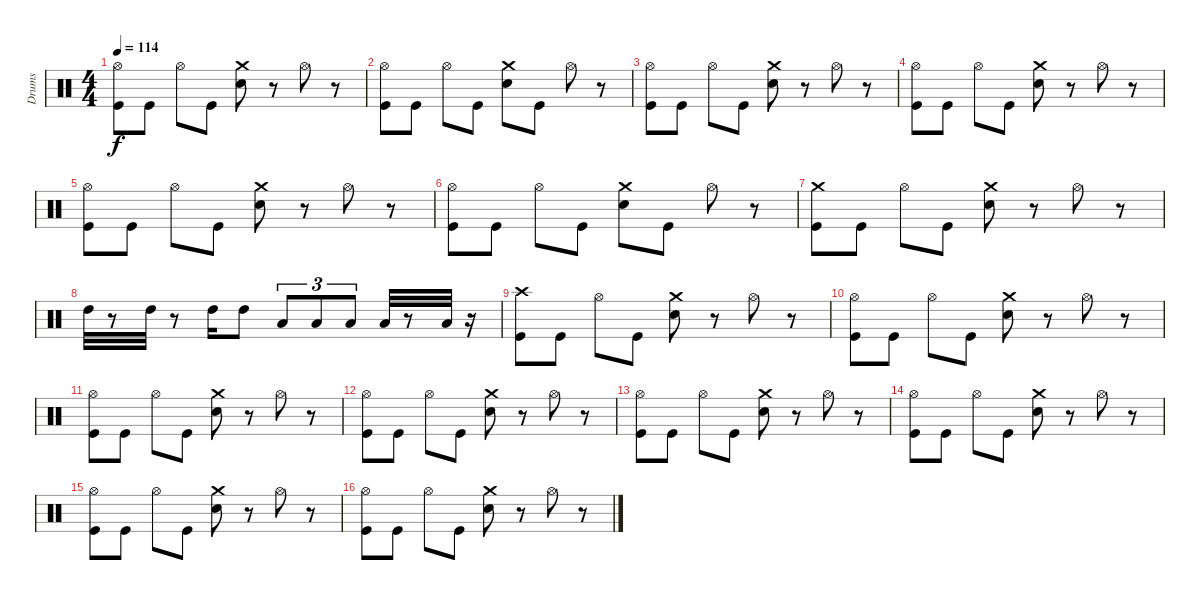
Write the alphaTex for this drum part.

\track ("Drums" "Drums") {instrument percussion}
\staff {score}
\articulation defaults
\ts (4 4)
\tempo 114
\clef neutral
\ks c
("Kick (hit)" "Hi-Hat (open)").8{dy f} "Kick (hit)".8 "Hi-Hat (open)".8 "Kick (hit)".8 ("Crash medium (hit)" "Electric Snare (hit)").8 r.8 "Hi-Hat (open)".8 r.8 |
("Kick (hit)" "Hi-Hat (open)").8 "Kick (hit)".8 "Hi-Hat (open)".8 "Kick (hit)".8 ("Crash medium (hit)" "Electric Snare (hit)").8 "Kick (hit)".8 "Hi-Hat (open)".8 r.8 |
("Kick (hit)" "Hi-Hat (open)").8 "Kick (hit)".8 "Hi-Hat (open)".8 "Kick (hit)".8 ("Crash medium (hit)" "Electric Snare (hit)").8 r.8 "Hi-Hat (open)".8 r.8 |
("Kick (hit)" "Hi-Hat (open)").8 "Kick (hit)".8 "Hi-Hat (open)".8 "Kick (hit)".8 ("Crash medium (hit)" "Electric Snare (hit)").8 r.8 "Hi-Hat (open)".8 r.8 |
("Kick (hit)" "Hi-Hat (open)").8 "Kick (hit)".8 "Hi-Hat (open)".8 "Kick (hit)".8 ("Crash medium (hit)" "Electric Snare (hit)").8 r.8 "Hi-Hat (open)".8 r.8 |
("Kick (hit)" "Hi-Hat (open)").8 "Kick (hit)".8 "Hi-Hat (open)".8 "Kick (hit)".8 ("Crash medium (hit)" "Electric Snare (hit)").8 "Kick (hit)".8 "Hi-Hat (open)".8 r.8 |
("Crash medium (hit)" "Kick (hit)").8 "Kick (hit)".8 "Hi-Hat (open)".8 "Kick (hit)".8 ("Crash medium (hit)" "Electric Snare (hit)").8 r.8 "Hi-Hat (open)".8 r.8 |
"High Tom (hit)".32 r.8 "High Tom (hit)".32 r.8 "High Tom (hit)".16 "High Tom (hit)".8 "Low Tom (hit)".8{tu (3 2)} "Low Tom (hit)".8{tu (3 2)} "Low Floor Tom (hit)".8{tu (3 2)} "Low Floor Tom (hit)".32 r.8 "Low Floor Tom (hit)".32 r.16 |
("Crash high (hit)" "Kick (hit)").8 "Kick (hit)".8 "Hi-Hat (open)".8 "Kick (hit)".8 ("Crash medium (hit)" "Electric Snare (hit)").8 r.8 "Hi-Hat (open)".8 r.8 |
("Kick (hit)" "Hi-Hat (open)").8 "Kick (hit)".8 "Hi-Hat (open)".8 "Kick (hit)".8 ("Crash medium (hit)" "Electric Snare (hit)").8 r.8 "Hi-Hat (open)".8 r.8 |
("Kick (hit)" "Hi-Hat (open)").8 "Kick (hit)".8 "Hi-Hat (open)".8 "Kick (hit)".8 ("Crash medium (hit)" "Electric Snare (hit)").8 r.8 "Hi-Hat (open)".8 r.8 |
("Kick (hit)" "Hi-Hat (open)").8 "Kick (hit)".8 "Hi-Hat (open)".8 "Kick (hit)".8 ("Crash medium (hit)" "Electric Snare (hit)").8 r.8 "Hi-Hat (open)".8 r.8 |
("Kick (hit)" "Hi-Hat (open)").8 "Kick (hit)".8 "Hi-Hat (open)".8 "Kick (hit)".8 ("Crash medium (hit)" "Electric Snare (hit)").8 r.8 "Hi-Hat (open)".8 r.8 |
("Kick (hit)" "Hi-Hat (open)").8 "Kick (hit)".8 "Hi-Hat (open)".8 "Kick (hit)".8 ("Crash medium (hit)" "Electric Snare (hit)").8 r.8 "Hi-Hat (open)".8 r.8 |
("Kick (hit)" "Hi-Hat (open)").8 "Kick (hit)".8 "Hi-Hat (open)".8 "Kick (hit)".8 ("Crash medium (hit)" "Electric Snare (hit)").8 r.8 "Hi-Hat (open)".8 r.8 |
("Kick (hit)" "Hi-Hat (open)").8 "Kick (hit)".8 "Hi-Hat (open)".8 "Kick (hit)".8 ("Crash medium (hit)" "Electric Snare (hit)").8 r.8 "Hi-Hat (open)".8 r.8
